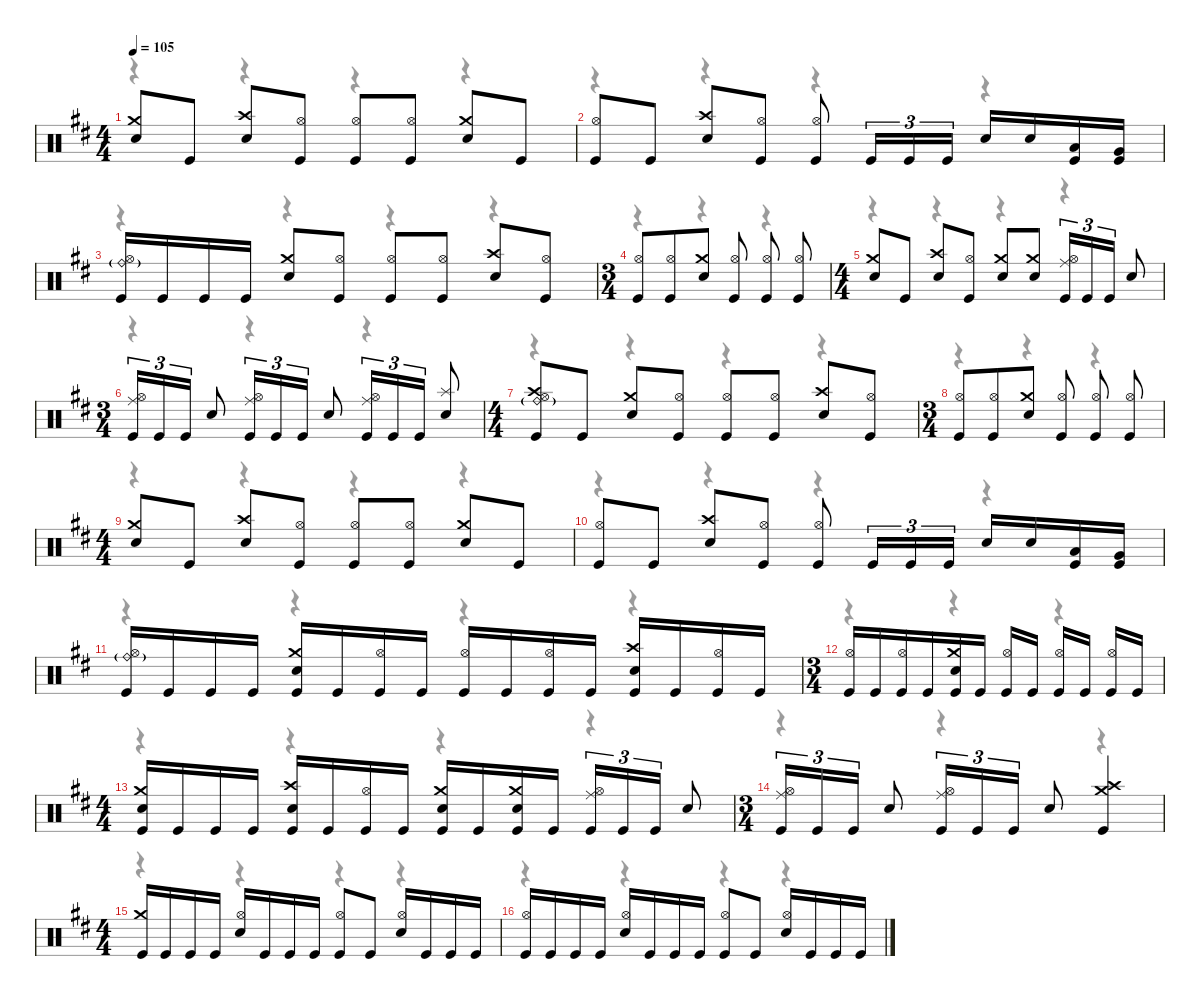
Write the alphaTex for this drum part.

\defaultSystemsLayout 4
\hideDynamics
\bracketExtendMode nobrackets
\singleTrackTrackNamePolicy hidden
\multiTrackTrackNamePolicy hidden
\firstSystemTrackNameMode fullname
\firstSystemTrackNameOrientation horizontal
\otherSystemsTrackNameOrientation horizontal
\track ("Drums" "drm.") {instrument percussion}
\staff {score}
\articulation defaults
\voice
\ts (4 4)
\beaming (8 2 2 2 2)
\tempo 105
\clef neutral
\ks bminor
("Crash medium (hit)"{acc forcenatural} "Snare (hit) 2"{acc forcenatural}).8{dy mp beam Up} "Kick (hit)"{acc forcenatural}.8{dy f beam Up} ("Crash high (hit)"{acc forcenatural} "Snare (hit) 2"{acc forcenatural}).8{dy mp beam Up} ("Hi-Hat (open)"{acc forcenatural} "Kick (hit)"{acc forcenatural}).8{dy pp beam Up} ("Hi-Hat (open)"{acc forcenatural} "Kick (hit)"{acc forcenatural}).8{dy mp beam Up} ("Hi-Hat (open)"{acc forcenatural} "Kick (hit)"{acc forcenatural}).8{dy pp beam Up} ("Crash medium (hit)"{acc forcenatural} "Snare (hit) 2"{acc forcenatural}).8{dy mp beam Up} "Kick (hit)"{acc forcenatural}.8{dy f beam Up} |
("Hi-Hat (open)"{acc forcenatural} "Kick (hit)"{acc forcenatural}).8{dy mp beam Up} "Kick (hit)"{acc forcenatural}.8{dy f beam Up} ("Crash high (hit)"{acc forcenatural} "Snare (hit) 2"{acc forcenatural}).8{dy mp beam Up} ("Hi-Hat (open)"{acc forcenatural} "Kick (hit)"{acc forcenatural}).8{dy pp beam Up} ("Hi-Hat (open)"{acc forcenatural} "Kick (hit)"{acc forcenatural}).8{dy mp beam Up} "Kick (hit)"{acc forcenatural}.16{tu (3 2) dy f beam Up} "Kick (hit)"{acc forcenatural}.16{tu (3 2) beam Up} "Kick (hit)"{acc forcenatural}.16{tu (3 2) beam Up} "Snare (hit) 2"{acc forcenatural}.16{beam Up} "Snare (hit) 2"{acc forcenatural}.16{beam Up} ("Low Tom (hit)"{acc forcenatural} "Kick (hit)"{acc forcenatural}).16{dy mp beam Up} ("Very Low Tom (hit)"{acc forcenatural} "Kick (hit)"{acc forcenatural}).16{beam Up} |
("Ride (bell)"{g acc forcenatural} "Hi-Hat (open)"{acc forcenatural} "Kick (hit)"{acc forcenatural}).16{beam Up} "Kick (hit)"{acc forcenatural}.16{dy f beam Up} "Kick (hit)"{acc forcenatural}.16{beam Up} "Kick (hit)"{acc forcenatural}.16{beam Up} ("Crash medium (hit)"{acc forcenatural} "Snare (hit) 2"{acc forcenatural}).8{dy mp beam Up} ("Hi-Hat (open)"{acc forcenatural} "Kick (hit)"{acc forcenatural}).8{dy pp beam Up} ("Hi-Hat (open)"{acc forcenatural} "Kick (hit)"{acc forcenatural}).8{dy mp beam Up} ("Hi-Hat (open)"{acc forcenatural} "Kick (hit)"{acc forcenatural}).8{dy pp beam Up} ("Crash high (hit)"{acc forcenatural} "Snare (hit) 2"{acc forcenatural}).8{dy mp beam Up} ("Hi-Hat (open)"{acc forcenatural} "Kick (hit)"{acc forcenatural}).8{dy pp beam Up} |
\ts (3 4)
\beaming (8 3 1 1 1)
("Hi-Hat (open)"{acc forcenatural} "Kick (hit)"{acc forcenatural}).8{dy mp beam Up} ("Hi-Hat (open)"{acc forcenatural} "Kick (hit)"{acc forcenatural}).8{dy pp beam Up} ("Crash medium (hit)"{acc forcenatural} "Snare (hit) 2"{acc forcenatural}).8{dy mp beam Up} ("Hi-Hat (open)"{acc forcenatural} "Kick (hit)"{acc forcenatural}).8{dy pp beam Up} ("Hi-Hat (open)"{acc forcenatural} "Kick (hit)"{acc forcenatural}).8{dy mp beam Up} ("Hi-Hat (open)"{acc forcenatural} "Kick (hit)"{acc forcenatural}).8{dy pp beam Up} |
\ts (4 4)
\beaming (8 2 2 2 2)
("Crash medium (hit)"{acc forcenatural} "Snare (hit) 2"{acc forcenatural}).8{dy mp beam Up} "Kick (hit)"{acc forcenatural}.8{dy f beam Up} ("Crash high (hit)"{acc forcenatural} "Snare (hit) 2"{acc forcenatural}).8{dy mp beam Up} ("Hi-Hat (open)"{acc forcenatural} "Kick (hit)"{acc forcenatural}).8{dy pp beam Up} ("Crash medium (hit)"{acc forcenatural} "Snare (hit) 2"{acc forcenatural}).8{dy mp beam Up} ("Crash medium (hit)"{acc forcenatural} "Snare (hit) 2"{acc forcenatural}).8{beam Up} ("Ride (middle)"{acc forcenatural} "Hi-Hat (open)"{acc forcenatural} "Kick (hit)"{acc forcenatural}).16{tu (3 2) dy mf beam Up} "Kick (hit)"{acc forcenatural}.16{tu (3 2) dy f beam Up} "Kick (hit)"{acc forcenatural}.16{tu (3 2) beam Up} "Snare (hit) 2"{acc forcenatural}.8{beam Up} |
\ts (3 4)
\beaming (8 3 1 1 1)
("Ride (middle)"{acc forcenatural} "Hi-Hat (open)"{acc forcenatural} "Kick (hit)"{acc forcenatural}).16{tu (3 2) dy mf beam Up} "Kick (hit)"{acc forcenatural}.16{tu (3 2) dy f beam Up} "Kick (hit)"{acc forcenatural}.16{tu (3 2) beam Up} "Snare (hit) 2"{acc forcenatural}.8{beam Up} ("Ride (middle)"{acc forcenatural} "Hi-Hat (open)"{acc forcenatural} "Kick (hit)"{acc forcenatural}).16{tu (3 2) dy mf beam Up} "Kick (hit)"{acc forcenatural}.16{tu (3 2) dy f beam Up} "Kick (hit)"{acc forcenatural}.16{tu (3 2) beam Up} "Snare (hit) 2"{acc forcenatural}.8{beam Up} ("Ride (middle)"{acc forcenatural} "Hi-Hat (open)"{acc forcenatural} "Kick (hit)"{acc forcenatural}).16{tu (3 2) dy mf beam Up} "Kick (hit)"{acc forcenatural}.16{tu (3 2) dy f beam Up} "Kick (hit)"{acc forcenatural}.16{tu (3 2) beam Up} ("Splash (hit)"{acc forcenatural} "Snare (hit) 2"{acc forcenatural}).8{beam Up} |
\ts (4 4)
\beaming (8 2 2 2 2)
("Ride (bell)"{g acc forcenatural} "Crash high (hit)"{acc forcenatural} "Hi-Hat (open)"{acc forcenatural} "Kick (hit)"{acc forcenatural}).8{dy mp beam Up} "Kick (hit)"{acc forcenatural}.8{dy f beam Up} ("Crash medium (hit)"{acc forcenatural} "Snare (hit) 2"{acc forcenatural}).8{dy mp beam Up} ("Hi-Hat (open)"{acc forcenatural} "Kick (hit)"{acc forcenatural}).8{dy pp beam Up} ("Hi-Hat (open)"{acc forcenatural} "Kick (hit)"{acc forcenatural}).8{dy mp beam Up} ("Hi-Hat (open)"{acc forcenatural} "Kick (hit)"{acc forcenatural}).8{dy pp beam Up} ("Crash high (hit)"{acc forcenatural} "Snare (hit) 2"{acc forcenatural}).8{dy mp beam Up} ("Hi-Hat (open)"{acc forcenatural} "Kick (hit)"{acc forcenatural}).8{dy pp beam Up} |
\ts (3 4)
\beaming (8 3 1 1 1)
("Hi-Hat (open)"{acc forcenatural} "Kick (hit)"{acc forcenatural}).8{dy mp beam Up} ("Hi-Hat (open)"{acc forcenatural} "Kick (hit)"{acc forcenatural}).8{dy pp beam Up} ("Crash medium (hit)"{acc forcenatural} "Snare (hit) 2"{acc forcenatural}).8{dy mp beam Up} ("Hi-Hat (open)"{acc forcenatural} "Kick (hit)"{acc forcenatural}).8{dy pp beam Up} ("Hi-Hat (open)"{acc forcenatural} "Kick (hit)"{acc forcenatural}).8{dy mp beam Up} ("Hi-Hat (open)"{acc forcenatural} "Kick (hit)"{acc forcenatural}).8{dy pp beam Up} |
\ts (4 4)
\beaming (8 2 2 2 2)
("Crash medium (hit)"{acc forcenatural} "Snare (hit) 2"{acc forcenatural}).8{dy mp beam Up} "Kick (hit)"{acc forcenatural}.8{dy f beam Up} ("Crash high (hit)"{acc forcenatural} "Snare (hit) 2"{acc forcenatural}).8{dy mp beam Up} ("Hi-Hat (open)"{acc forcenatural} "Kick (hit)"{acc forcenatural}).8{dy pp beam Up} ("Hi-Hat (open)"{acc forcenatural} "Kick (hit)"{acc forcenatural}).8{dy mp beam Up} ("Hi-Hat (open)"{acc forcenatural} "Kick (hit)"{acc forcenatural}).8{dy pp beam Up} ("Crash medium (hit)"{acc forcenatural} "Snare (hit) 2"{acc forcenatural}).8{dy mp beam Up} "Kick (hit)"{acc forcenatural}.8{dy f beam Up} |
("Hi-Hat (open)"{acc forcenatural} "Kick (hit)"{acc forcenatural}).8{dy mp beam Up} "Kick (hit)"{acc forcenatural}.8{dy f beam Up} ("Crash high (hit)"{acc forcenatural} "Snare (hit) 2"{acc forcenatural}).8{dy mp beam Up} ("Hi-Hat (open)"{acc forcenatural} "Kick (hit)"{acc forcenatural}).8{dy pp beam Up} ("Hi-Hat (open)"{acc forcenatural} "Kick (hit)"{acc forcenatural}).8{dy mp beam Up} "Kick (hit)"{acc forcenatural}.16{tu (3 2) dy f beam Up} "Kick (hit)"{acc forcenatural}.16{tu (3 2) beam Up} "Kick (hit)"{acc forcenatural}.16{tu (3 2) beam Up} "Snare (hit) 2"{acc forcenatural}.16{beam Up} "Snare (hit) 2"{acc forcenatural}.16{beam Up} ("Low Tom (hit)"{acc forcenatural} "Kick (hit)"{acc forcenatural}).16{dy mp beam Up} ("Very Low Tom (hit)"{acc forcenatural} "Kick (hit)"{acc forcenatural}).16{beam Up} |
("Ride (bell)"{g acc forcenatural} "Hi-Hat (open)"{acc forcenatural} "Kick (hit)"{acc forcenatural}).16{beam Up} "Kick (hit)"{acc forcenatural}.16{dy f beam Up} "Kick (hit)"{acc forcenatural}.16{beam Up} "Kick (hit)"{acc forcenatural}.16{beam Up} ("Crash medium (hit)"{acc forcenatural} "Snare (hit) 2"{acc forcenatural} "Kick (hit)"{acc forcenatural}).16{dy mp beam Up} "Kick (hit)"{acc forcenatural}.16{dy f beam Up} ("Hi-Hat (open)"{acc forcenatural} "Kick (hit)"{acc forcenatural}).16{dy pp beam Up} "Kick (hit)"{acc forcenatural}.16{dy f beam Up} ("Hi-Hat (open)"{acc forcenatural} "Kick (hit)"{acc forcenatural}).16{dy mp beam Up} "Kick (hit)"{acc forcenatural}.16{dy f beam Up} ("Hi-Hat (open)"{acc forcenatural} "Kick (hit)"{acc forcenatural}).16{dy pp beam Up} "Kick (hit)"{acc forcenatural}.16{dy f beam Up} ("Crash high (hit)"{acc forcenatural} "Snare (hit) 2"{acc forcenatural} "Kick (hit)"{acc forcenatural}).16{dy mp beam Up} "Kick (hit)"{acc forcenatural}.16{dy f beam Up} ("Hi-Hat (open)"{acc forcenatural} "Kick (hit)"{acc forcenatural}).16{dy pp beam Up} "Kick (hit)"{acc forcenatural}.16{dy f beam Up} |
\ts (3 4)
\beaming (8 3 1 1 1)
("Hi-Hat (open)"{acc forcenatural} "Kick (hit)"{acc forcenatural}).16{dy mp beam Up} "Kick (hit)"{acc forcenatural}.16{dy f beam Up} ("Hi-Hat (open)"{acc forcenatural} "Kick (hit)"{acc forcenatural}).16{dy pp beam Up} "Kick (hit)"{acc forcenatural}.16{dy f beam Up} ("Crash medium (hit)"{acc forcenatural} "Snare (hit) 2"{acc forcenatural} "Kick (hit)"{acc forcenatural}).16{dy mp beam Up} "Kick (hit)"{acc forcenatural}.16{dy f beam Up} ("Hi-Hat (open)"{acc forcenatural} "Kick (hit)"{acc forcenatural}).16{dy pp beam Up} "Kick (hit)"{acc forcenatural}.16{dy f beam Up} ("Hi-Hat (open)"{acc forcenatural} "Kick (hit)"{acc forcenatural}).16{dy mp beam Up} "Kick (hit)"{acc forcenatural}.16{dy f beam Up} ("Hi-Hat (open)"{acc forcenatural} "Kick (hit)"{acc forcenatural}).16{dy pp beam Up} "Kick (hit)"{acc forcenatural}.16{dy f beam Up} |
\ts (4 4)
\beaming (8 2 2 2 2)
("Crash medium (hit)"{acc forcenatural} "Snare (hit) 2"{acc forcenatural} "Kick (hit)"{acc forcenatural}).16{dy mp beam Up} "Kick (hit)"{acc forcenatural}.16{dy f beam Up} "Kick (hit)"{acc forcenatural}.16{beam Up} "Kick (hit)"{acc forcenatural}.16{beam Up} ("Crash high (hit)"{acc forcenatural} "Snare (hit) 2"{acc forcenatural} "Kick (hit)"{acc forcenatural}).16{dy mp beam Up} "Kick (hit)"{acc forcenatural}.16{dy f beam Up} ("Hi-Hat (open)"{acc forcenatural} "Kick (hit)"{acc forcenatural}).16{dy pp beam Up} "Kick (hit)"{acc forcenatural}.16{dy f beam Up} ("Crash medium (hit)"{acc forcenatural} "Snare (hit) 2"{acc forcenatural} "Kick (hit)"{acc forcenatural}).16{dy mp beam Up} "Kick (hit)"{acc forcenatural}.16{dy f beam Up} ("Crash medium (hit)"{acc forcenatural} "Snare (hit) 2"{acc forcenatural} "Kick (hit)"{acc forcenatural}).16{dy mp beam Up} "Kick (hit)"{acc forcenatural}.16{dy f beam Up} ("Ride (middle)"{acc forcenatural} "Hi-Hat (open)"{acc forcenatural} "Kick (hit)"{acc forcenatural}).16{tu (3 2) dy mf beam Up} "Kick (hit)"{acc forcenatural}.16{tu (3 2) dy f beam Up} "Kick (hit)"{acc forcenatural}.16{tu (3 2) beam Up} "Snare (hit) 2"{acc forcenatural}.8{beam Up} |
\ts (3 4)
\beaming (8 3 1 1 1)
("Ride (middle)"{acc forcenatural} "Hi-Hat (open)"{acc forcenatural} "Kick (hit)"{acc forcenatural}).16{tu (3 2) dy mf beam Up} "Kick (hit)"{acc forcenatural}.16{tu (3 2) dy f beam Up} "Kick (hit)"{acc forcenatural}.16{tu (3 2) beam Up} "Snare (hit) 2"{acc forcenatural}.8{beam Up} ("Ride (middle)"{acc forcenatural} "Hi-Hat (open)"{acc forcenatural} "Kick (hit)"{acc forcenatural}).16{tu (3 2) dy mf beam Up} "Kick (hit)"{acc forcenatural}.16{tu (3 2) dy f beam Up} "Kick (hit)"{acc forcenatural}.16{tu (3 2) beam Up} "Snare (hit) 2"{acc forcenatural}.8{beam Up} ("Crash high (hit)"{acc forcenatural} "Crash medium (hit)"{acc forcenatural} "Kick (hit)"{acc forcenatural}).4{dy mp beam Up} |
\ts (4 4)
\beaming (8 2 2 2 2)
("Crash medium (hit)"{acc forcenatural} "Kick (hit)"{acc forcenatural}).16{dy mf beam Up} "Kick (hit)"{acc forcenatural}.16{dy f beam Up} "Kick (hit)"{acc forcenatural}.16{beam Up} "Kick (hit)"{acc forcenatural}.16{beam Up} ("Hi-Hat (open)"{acc forcenatural} "Snare (hit) 2"{acc forcenatural}).16{dy mp beam Up} "Kick (hit)"{acc forcenatural}.16{dy f beam Up} "Kick (hit)"{acc forcenatural}.16{beam Up} "Kick (hit)"{acc forcenatural}.16{beam Up} ("Hi-Hat (open)"{acc forcenatural} "Kick (hit)"{acc forcenatural}).8{dy mp beam Up} "Kick (hit)"{acc forcenatural}.8{dy f beam Up} ("Hi-Hat (open)"{acc forcenatural} "Snare (hit) 2"{acc forcenatural}).16{dy mp beam Up} "Kick (hit)"{acc forcenatural}.16{dy f beam Up} "Kick (hit)"{acc forcenatural}.16{beam Up} "Kick (hit)"{acc forcenatural}.16{beam Up} |
("Hi-Hat (open)"{acc forcenatural} "Kick (hit)"{acc forcenatural}).16{dy mp beam Up} "Kick (hit)"{acc forcenatural}.16{dy f beam Up} "Kick (hit)"{acc forcenatural}.16{beam Up} "Kick (hit)"{acc forcenatural}.16{beam Up} ("Hi-Hat (open)"{acc forcenatural} "Snare (hit) 2"{acc forcenatural}).16{dy mp beam Up} "Kick (hit)"{acc forcenatural}.16{dy f beam Up} "Kick (hit)"{acc forcenatural}.16{beam Up} "Kick (hit)"{acc forcenatural}.16{beam Up} ("Hi-Hat (open)"{acc forcenatural} "Kick (hit)"{acc forcenatural}).8{dy mp beam Up} "Kick (hit)"{acc forcenatural}.8{dy f beam Up} ("Hi-Hat (open)"{acc forcenatural} "Snare (hit) 2"{acc forcenatural}).16{dy mp beam Up} "Kick (hit)"{acc forcenatural}.16{dy f beam Up} "Kick (hit)"{acc forcenatural}.16{beam Up} "Kick (hit)"{acc forcenatural}.16{beam Up}
\voice
\clef neutral
\ottava regular
\simile none
\ks bminor
r.4{dy mf beam Down} r.4{beam Down} r.4{beam Down} r.4{beam Down} |
r.4{beam Down} r.4{beam Down} r.4{beam Down} r.4{beam Down} |
r.4{beam Down} r.4{beam Down} r.4{beam Down} r.4{beam Down} |
r.4{beam Down} r.4{beam Down} r.4{beam Down} |
r.4{beam Down} r.4{beam Down} r.4{beam Down} r.4{beam Down} |
r.4{beam Down} r.4{beam Down} r.4{beam Down} |
r.4{beam Down} r.4{beam Down} r.4{beam Down} r.4{beam Down} |
r.4{beam Down} r.4{beam Down} r.4{beam Down} |
r.4{beam Down} r.4{beam Down} r.4{beam Down} r.4{beam Down} |
r.4{beam Down} r.4{beam Down} r.4{beam Down} r.4{beam Down} |
r.4{beam Down} r.4{beam Down} r.4{beam Down} r.4{beam Down} |
r.4{beam Down} r.4{beam Down} r.4{beam Down} |
r.4{beam Down} r.4{beam Down} r.4{beam Down} r.4{beam Down} |
r.4{beam Down} r.4{beam Down} r.4{beam Down} |
r.4{beam Down} r.4{beam Down} r.4{beam Down} r.4{beam Down} |
r.4{beam Down} r.4{beam Down} r.4{beam Down} r.4{beam Down}
